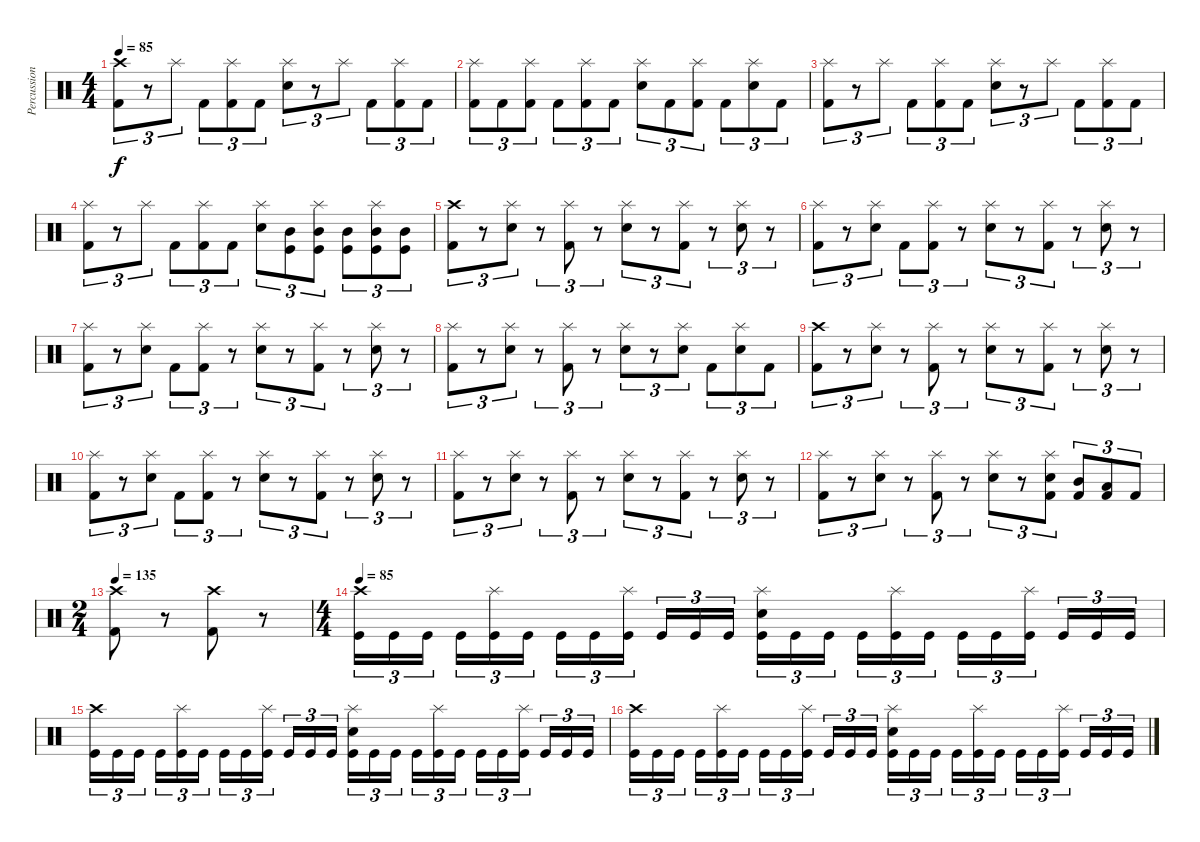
\track ("Percussion" "Percussion") {instrument percussion}
\staff {score}
\articulation defaults
\ts (4 4)
\tempo 85
\clef neutral
\ks c
("Crash high (hit)" "Kick (hit) 2").8{tu (3 2) dy f} r.8{tu (3 2)} "Splash (hit)".8{tu (3 2)} "Kick (hit) 2".8{tu (3 2)} ("Splash (hit)" "Kick (hit) 2").8{tu (3 2)} "Kick (hit) 2".8{tu (3 2)} ("Splash (hit)" "Electric Snare (hit)").8{tu (3 2)} r.8{tu (3 2)} "Splash (hit)".8{tu (3 2)} "Kick (hit) 2".8{tu (3 2)} ("Splash (hit)" "Kick (hit) 2").8{tu (3 2)} "Kick (hit) 2".8{tu (3 2)} |
("Splash (hit)" "Kick (hit) 2").8{tu (3 2)} "Kick (hit) 2".8{tu (3 2)} ("Splash (hit)" "Kick (hit) 2").8{tu (3 2)} "Kick (hit) 2".8{tu (3 2)} ("Splash (hit)" "Kick (hit) 2").8{tu (3 2)} "Kick (hit) 2".8{tu (3 2)} ("Splash (hit)" "Electric Snare (hit)").8{tu (3 2)} "Kick (hit) 2".8{tu (3 2)} ("Splash (hit)" "Kick (hit) 2").8{tu (3 2)} "Kick (hit) 2".8{tu (3 2)} ("Splash (hit)" "Electric Snare (hit)").8{tu (3 2)} "Kick (hit) 2".8{tu (3 2)} |
("Splash (hit)" "Kick (hit) 2").8{tu (3 2)} r.8{tu (3 2)} "Splash (hit)".8{tu (3 2)} "Kick (hit) 2".8{tu (3 2)} ("Splash (hit)" "Kick (hit) 2").8{tu (3 2)} "Kick (hit) 2".8{tu (3 2)} ("Splash (hit)" "Electric Snare (hit)").8{tu (3 2)} r.8{tu (3 2)} "Splash (hit)".8{tu (3 2)} "Kick (hit) 2".8{tu (3 2)} ("Splash (hit)" "Kick (hit) 2").8{tu (3 2)} "Kick (hit) 2".8{tu (3 2)} |
("Splash (hit)" "Kick (hit) 2").8{tu (3 2)} r.8{tu (3 2)} "Splash (hit)".8{tu (3 2)} "Kick (hit) 2".8{tu (3 2)} ("Splash (hit)" "Kick (hit) 2").8{tu (3 2)} "Kick (hit) 2".8{tu (3 2)} ("Splash (hit)" "Electric Snare (hit)").8{tu (3 2)} ("Mid Tom (hit)" "Kick (hit)").8{tu (3 2)} ("Splash (hit)" "Mid Tom (hit)" "Kick (hit)").8{tu (3 2)} ("Mid Tom (hit)" "Kick (hit)").8{tu (3 2)} ("Splash (hit)" "Mid Tom (hit)" "Kick (hit)").8{tu (3 2)} ("Mid Tom (hit)" "Kick (hit)").8{tu (3 2)} |
("Crash high (hit)" "Kick (hit) 2").8{tu (3 2)} r.8{tu (3 2)} ("Splash (hit)" "Electric Snare (hit)").8{tu (3 2)} r.8{tu (3 2)} ("Splash (hit)" "Kick (hit) 2").8{tu (3 2)} r.8{tu (3 2)} ("Splash (hit)" "Electric Snare (hit)").8{tu (3 2)} r.8{tu (3 2)} ("Splash (hit)" "Kick (hit) 2").8{tu (3 2)} r.8{tu (3 2)} ("Splash (hit)" "Electric Snare (hit)").8{tu (3 2)} r.8{tu (3 2)} |
("Splash (hit)" "Kick (hit) 2").8{tu (3 2)} r.8{tu (3 2)} ("Splash (hit)" "Electric Snare (hit)").8{tu (3 2)} "Kick (hit) 2".8{tu (3 2)} ("Splash (hit)" "Kick (hit) 2").8{tu (3 2)} r.8{tu (3 2)} ("Splash (hit)" "Electric Snare (hit)").8{tu (3 2)} r.8{tu (3 2)} ("Splash (hit)" "Kick (hit) 2").8{tu (3 2)} r.8{tu (3 2)} ("Splash (hit)" "Electric Snare (hit)").8{tu (3 2)} r.8{tu (3 2)} |
("Splash (hit)" "Kick (hit) 2").8{tu (3 2)} r.8{tu (3 2)} ("Splash (hit)" "Electric Snare (hit)").8{tu (3 2)} "Kick (hit) 2".8{tu (3 2)} ("Splash (hit)" "Kick (hit) 2").8{tu (3 2)} r.8{tu (3 2)} ("Splash (hit)" "Electric Snare (hit)").8{tu (3 2)} r.8{tu (3 2)} ("Splash (hit)" "Kick (hit) 2").8{tu (3 2)} r.8{tu (3 2)} ("Splash (hit)" "Electric Snare (hit)").8{tu (3 2)} r.8{tu (3 2)} |
("Splash (hit)" "Kick (hit) 2").8{tu (3 2)} r.8{tu (3 2)} ("Splash (hit)" "Electric Snare (hit)").8{tu (3 2)} r.8{tu (3 2)} ("Splash (hit)" "Kick (hit) 2").8{tu (3 2)} r.8{tu (3 2)} ("Splash (hit)" "Electric Snare (hit)").8{tu (3 2)} r.8{tu (3 2)} ("Splash (hit)" "Electric Snare (hit)").8{tu (3 2)} "Kick (hit) 2".8{tu (3 2)} ("Splash (hit)" "Electric Snare (hit)").8{tu (3 2)} "Kick (hit) 2".8{tu (3 2)} |
("Crash high (hit)" "Kick (hit) 2").8{tu (3 2)} r.8{tu (3 2)} ("Splash (hit)" "Electric Snare (hit)").8{tu (3 2)} r.8{tu (3 2)} ("Splash (hit)" "Kick (hit) 2").8{tu (3 2)} r.8{tu (3 2)} ("Splash (hit)" "Electric Snare (hit)").8{tu (3 2)} r.8{tu (3 2)} ("Splash (hit)" "Kick (hit) 2").8{tu (3 2)} r.8{tu (3 2)} ("Splash (hit)" "Electric Snare (hit)").8{tu (3 2)} r.8{tu (3 2)} |
("Splash (hit)" "Kick (hit) 2").8{tu (3 2)} r.8{tu (3 2)} ("Splash (hit)" "Electric Snare (hit)").8{tu (3 2)} "Kick (hit) 2".8{tu (3 2)} ("Splash (hit)" "Kick (hit) 2").8{tu (3 2)} r.8{tu (3 2)} ("Splash (hit)" "Electric Snare (hit)").8{tu (3 2)} r.8{tu (3 2)} ("Splash (hit)" "Kick (hit) 2").8{tu (3 2)} r.8{tu (3 2)} ("Splash (hit)" "Electric Snare (hit)").8{tu (3 2)} r.8{tu (3 2)} |
("Splash (hit)" "Kick (hit) 2").8{tu (3 2)} r.8{tu (3 2)} ("Splash (hit)" "Electric Snare (hit)").8{tu (3 2)} r.8{tu (3 2)} ("Splash (hit)" "Kick (hit) 2").8{tu (3 2)} r.8{tu (3 2)} ("Splash (hit)" "Electric Snare (hit)").8{tu (3 2)} r.8{tu (3 2)} ("Splash (hit)" "Kick (hit) 2").8{tu (3 2)} r.8{tu (3 2)} ("Splash (hit)" "Electric Snare (hit)").8{tu (3 2)} r.8{tu (3 2)} |
("Splash (hit)" "Kick (hit) 2").8{tu (3 2)} r.8{tu (3 2)} ("Splash (hit)" "Electric Snare (hit)").8{tu (3 2)} r.8{tu (3 2)} ("Splash (hit)" "Kick (hit) 2").8{tu (3 2)} r.8{tu (3 2)} ("Splash (hit)" "Electric Snare (hit)").8{tu (3 2)} r.8{tu (3 2)} ("Splash (hit)" "Electric Snare (hit)" "Kick (hit) 2").8{tu (3 2)} ("Mid Tom (hit)" "Kick (hit) 2").8{tu (3 2)} ("Low Tom (hit)" "Kick (hit) 2").8{tu (3 2)} "Kick (hit) 2".8{tu (3 2)} |
\ts (2 4)
\tempo 135
("Crash high (hit)" "Kick (hit) 2").8 r.8 ("Crash high (hit)" "Kick (hit) 2").8 r.8 |
\ts (4 4)
\tempo 85
("Crash high (hit)" "Kick (hit)").16{tu (3 2)} "Kick (hit)".16{tu (3 2)} "Kick (hit)".16{tu (3 2)} "Kick (hit)".16{tu (3 2)} ("Splash (hit)" "Kick (hit)").16{tu (3 2)} "Kick (hit)".16{tu (3 2)} "Kick (hit)".16{tu (3 2)} "Kick (hit)".16{tu (3 2)} ("Splash (hit)" "Kick (hit)").16{tu (3 2)} "Kick (hit)".16{tu (3 2)} "Kick (hit)".16{tu (3 2)} "Kick (hit)".16{tu (3 2)} ("Splash (hit)" "Electric Snare (hit)" "Kick (hit)").16{tu (3 2)} "Kick (hit)".16{tu (3 2)} "Kick (hit)".16{tu (3 2)} "Kick (hit)".16{tu (3 2)} ("Splash (hit)" "Kick (hit)").16{tu (3 2)} "Kick (hit)".16{tu (3 2)} "Kick (hit)".16{tu (3 2)} "Kick (hit)".16{tu (3 2)} ("Splash (hit)" "Kick (hit)").16{tu (3 2)} "Kick (hit)".16{tu (3 2)} "Kick (hit)".16{tu (3 2)} "Kick (hit)".16{tu (3 2)} |
("Crash high (hit)" "Kick (hit)").16{tu (3 2)} "Kick (hit)".16{tu (3 2)} "Kick (hit)".16{tu (3 2)} "Kick (hit)".16{tu (3 2)} ("Splash (hit)" "Kick (hit)").16{tu (3 2)} "Kick (hit)".16{tu (3 2)} "Kick (hit)".16{tu (3 2)} "Kick (hit)".16{tu (3 2)} ("Splash (hit)" "Kick (hit)").16{tu (3 2)} "Kick (hit)".16{tu (3 2)} "Kick (hit)".16{tu (3 2)} "Kick (hit)".16{tu (3 2)} ("Splash (hit)" "Electric Snare (hit)" "Kick (hit)").16{tu (3 2)} "Kick (hit)".16{tu (3 2)} "Kick (hit)".16{tu (3 2)} "Kick (hit)".16{tu (3 2)} ("Splash (hit)" "Kick (hit)").16{tu (3 2)} "Kick (hit)".16{tu (3 2)} "Kick (hit)".16{tu (3 2)} "Kick (hit)".16{tu (3 2)} ("Splash (hit)" "Kick (hit)").16{tu (3 2)} "Kick (hit)".16{tu (3 2)} "Kick (hit)".16{tu (3 2)} "Kick (hit)".16{tu (3 2)} |
("Crash high (hit)" "Kick (hit)").16{tu (3 2)} "Kick (hit)".16{tu (3 2)} "Kick (hit)".16{tu (3 2)} "Kick (hit)".16{tu (3 2)} ("Splash (hit)" "Kick (hit)").16{tu (3 2)} "Kick (hit)".16{tu (3 2)} "Kick (hit)".16{tu (3 2)} "Kick (hit)".16{tu (3 2)} ("Splash (hit)" "Kick (hit)").16{tu (3 2)} "Kick (hit)".16{tu (3 2)} "Kick (hit)".16{tu (3 2)} "Kick (hit)".16{tu (3 2)} ("Splash (hit)" "Electric Snare (hit)" "Kick (hit)").16{tu (3 2)} "Kick (hit)".16{tu (3 2)} "Kick (hit)".16{tu (3 2)} "Kick (hit)".16{tu (3 2)} ("Splash (hit)" "Kick (hit)").16{tu (3 2)} "Kick (hit)".16{tu (3 2)} "Kick (hit)".16{tu (3 2)} "Kick (hit)".16{tu (3 2)} ("Splash (hit)" "Kick (hit)").16{tu (3 2)} "Kick (hit)".16{tu (3 2)} "Kick (hit)".16{tu (3 2)} "Kick (hit)".16{tu (3 2)}
